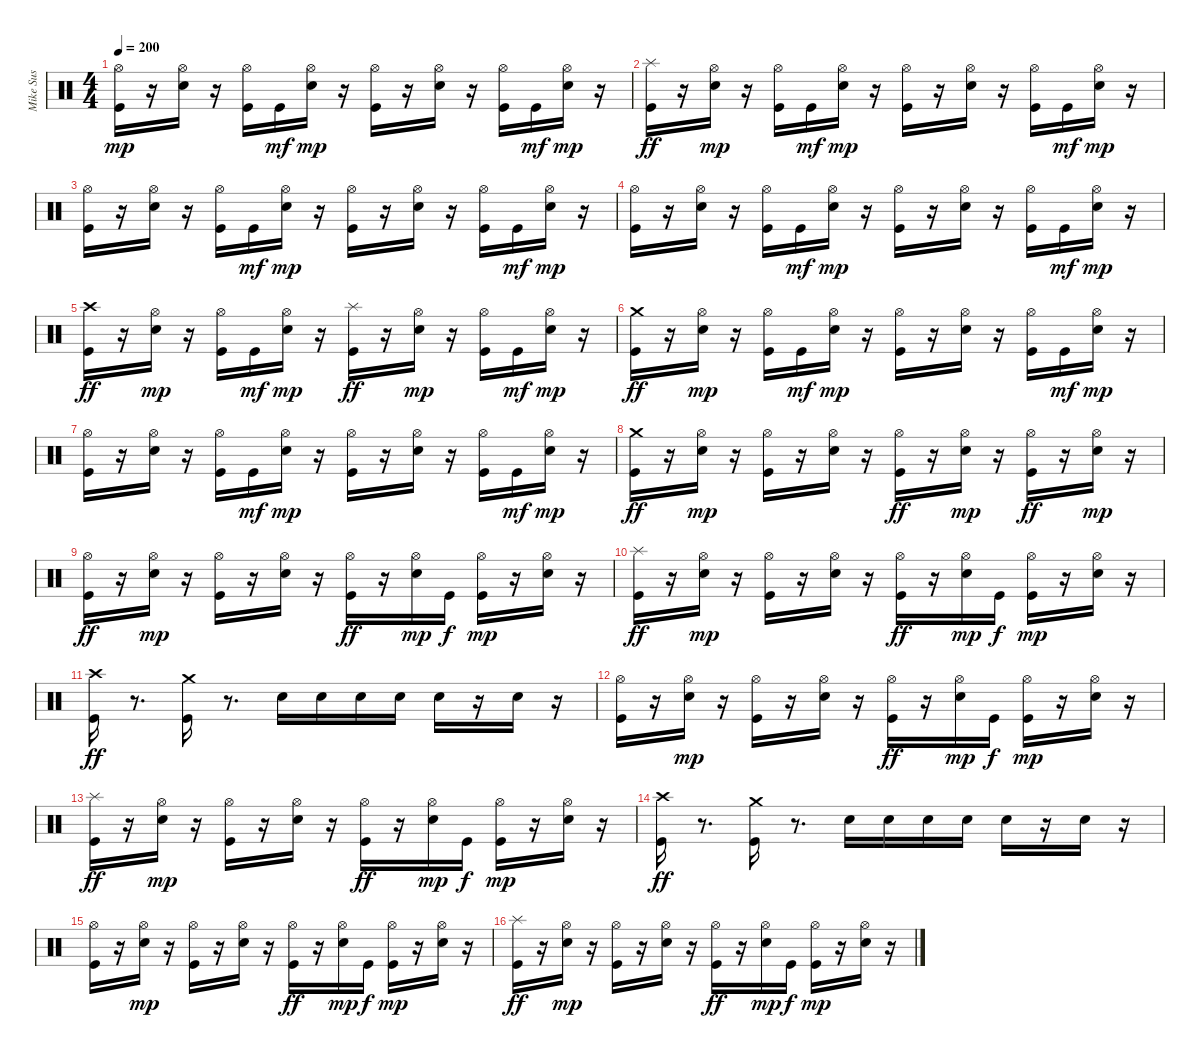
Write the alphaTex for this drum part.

\track ("Mike Sus" "Mike Sus") {instrument percussion}
\staff {score}
\articulation defaults
\ts (4 4)
\tempo 200
\clef neutral
\ks c
("Kick (hit)" "Hi-Hat (open)").16{dy mp} r.16 ("Snare (hit) 2" "Hi-Hat (open)").16 r.16 ("Kick (hit)" "Hi-Hat (open)").16 "Kick (hit)".16{dy mf} ("Snare (hit) 2" "Hi-Hat (open)").16{dy mp} r.16 ("Kick (hit)" "Hi-Hat (open)").16 r.16 ("Snare (hit) 2" "Hi-Hat (open)").16 r.16 ("Kick (hit)" "Hi-Hat (open)").16 "Kick (hit)".16{dy mf} ("Snare (hit) 2" "Hi-Hat (open)").16{dy mp} r.16 |
("Kick (hit)" "Splash (hit)").16{dy ff} r.16 ("Snare (hit) 2" "Hi-Hat (open)").16{dy mp} r.16 ("Kick (hit)" "Hi-Hat (open)").16 "Kick (hit)".16{dy mf} ("Snare (hit) 2" "Hi-Hat (open)").16{dy mp} r.16 ("Kick (hit)" "Hi-Hat (open)").16 r.16 ("Snare (hit) 2" "Hi-Hat (open)").16 r.16 ("Kick (hit)" "Hi-Hat (open)").16 "Kick (hit)".16{dy mf} ("Snare (hit) 2" "Hi-Hat (open)").16{dy mp} r.16 |
("Kick (hit)" "Hi-Hat (open)").16 r.16 ("Snare (hit) 2" "Hi-Hat (open)").16 r.16 ("Kick (hit)" "Hi-Hat (open)").16 "Kick (hit)".16{dy mf} ("Snare (hit) 2" "Hi-Hat (open)").16{dy mp} r.16 ("Kick (hit)" "Hi-Hat (open)").16 r.16 ("Snare (hit) 2" "Hi-Hat (open)").16 r.16 ("Kick (hit)" "Hi-Hat (open)").16 "Kick (hit)".16{dy mf} ("Snare (hit) 2" "Hi-Hat (open)").16{dy mp} r.16 |
("Kick (hit)" "Hi-Hat (open)").16 r.16 ("Snare (hit) 2" "Hi-Hat (open)").16 r.16 ("Kick (hit)" "Hi-Hat (open)").16 "Kick (hit)".16{dy mf} ("Snare (hit) 2" "Hi-Hat (open)").16{dy mp} r.16 ("Kick (hit)" "Hi-Hat (open)").16 r.16 ("Snare (hit) 2" "Hi-Hat (open)").16 r.16 ("Kick (hit)" "Hi-Hat (open)").16 "Kick (hit)".16{dy mf} ("Snare (hit) 2" "Hi-Hat (open)").16{dy mp} r.16 |
("Kick (hit)" "Crash high (hit)").16{dy ff} r.16 ("Snare (hit) 2" "Hi-Hat (open)").16{dy mp} r.16 ("Kick (hit)" "Hi-Hat (open)").16 "Kick (hit)".16{dy mf} ("Snare (hit) 2" "Hi-Hat (open)").16{dy mp} r.16 ("Kick (hit)" "Splash (hit)").16{dy ff} r.16 ("Snare (hit) 2" "Hi-Hat (open)").16{dy mp} r.16 ("Kick (hit)" "Hi-Hat (open)").16 "Kick (hit)".16{dy mf} ("Snare (hit) 2" "Hi-Hat (open)").16{dy mp} r.16 |
("Kick (hit)" "Crash medium (hit)").16{dy ff} r.16 ("Snare (hit) 2" "Hi-Hat (open)").16{dy mp} r.16 ("Kick (hit)" "Hi-Hat (open)").16 "Kick (hit)".16{dy mf} ("Snare (hit) 2" "Hi-Hat (open)").16{dy mp} r.16 ("Kick (hit)" "Hi-Hat (open)").16 r.16 ("Snare (hit) 2" "Hi-Hat (open)").16 r.16 ("Kick (hit)" "Hi-Hat (open)").16 "Kick (hit)".16{dy mf} ("Snare (hit) 2" "Hi-Hat (open)").16{dy mp} r.16 |
("Kick (hit)" "Hi-Hat (open)").16 r.16 ("Snare (hit) 2" "Hi-Hat (open)").16 r.16 ("Kick (hit)" "Hi-Hat (open)").16 "Kick (hit)".16{dy mf} ("Snare (hit) 2" "Hi-Hat (open)").16{dy mp} r.16 ("Kick (hit)" "Hi-Hat (open)").16 r.16 ("Snare (hit) 2" "Hi-Hat (open)").16 r.16 ("Kick (hit)" "Hi-Hat (open)").16 "Kick (hit)".16{dy mf} ("Snare (hit) 2" "Hi-Hat (open)").16{dy mp} r.16 |
("Kick (hit)" "Crash medium (hit)").16{dy ff} r.16 ("Snare (hit) 2" "Hi-Hat (open)").16{dy mp} r.16 ("Kick (hit)" "Hi-Hat (open)").16 r.16 ("Snare (hit) 2" "Hi-Hat (open)").16 r.16 ("Hi-Hat (open)" "Kick (hit)").16{dy ff} r.16 ("Snare (hit) 2" "Hi-Hat (open)").16{dy mp} r.16 ("Hi-Hat (open)" "Kick (hit)").16{dy ff} r.16 ("Snare (hit) 2" "Hi-Hat (open)").16{dy mp} r.16 |
("Hi-Hat (open)" "Kick (hit)").16{dy ff} r.16 ("Snare (hit) 2" "Hi-Hat (open)").16{dy mp} r.16 ("Kick (hit)" "Hi-Hat (open)").16 r.16 ("Snare (hit) 2" "Hi-Hat (open)").16 r.16 ("Hi-Hat (open)" "Kick (hit)").16{dy ff} r.16 ("Snare (hit) 2" "Hi-Hat (open)").16{dy mp} "Kick (hit)".16{dy f} ("Hi-Hat (open)" "Kick (hit)").16{dy mp} r.16 ("Snare (hit) 2" "Hi-Hat (open)").16 r.16 |
("Kick (hit)" "Splash (hit)").16{dy ff} r.16 ("Snare (hit) 2" "Hi-Hat (open)").16{dy mp} r.16 ("Kick (hit)" "Hi-Hat (open)").16 r.16 ("Snare (hit) 2" "Hi-Hat (open)").16 r.16 ("Hi-Hat (open)" "Kick (hit)").16{dy ff} r.16 ("Snare (hit) 2" "Hi-Hat (open)").16{dy mp} "Kick (hit)".16{dy f} ("Hi-Hat (open)" "Kick (hit)").16{dy mp} r.16 ("Snare (hit) 2" "Hi-Hat (open)").16 r.16 |
("Kick (hit)" "Crash high (hit)").16{dy ff} r.8{d} ("Kick (hit)" "Crash medium (hit)").16 r.8{d} "Snare (hit) 2".16 "Snare (hit) 2".16 "Snare (hit) 2".16 "Snare (hit) 2".16 "Snare (hit) 2".16 r.16 "Snare (hit) 2".16 r.16 |
("Hi-Hat (open)" "Kick (hit)").16 r.16 ("Snare (hit) 2" "Hi-Hat (open)").16{dy mp} r.16 ("Kick (hit)" "Hi-Hat (open)").16 r.16 ("Snare (hit) 2" "Hi-Hat (open)").16 r.16 ("Hi-Hat (open)" "Kick (hit)").16{dy ff} r.16 ("Snare (hit) 2" "Hi-Hat (open)").16{dy mp} "Kick (hit)".16{dy f} ("Hi-Hat (open)" "Kick (hit)").16{dy mp} r.16 ("Snare (hit) 2" "Hi-Hat (open)").16 r.16 |
("Kick (hit)" "Splash (hit)").16{dy ff} r.16 ("Snare (hit) 2" "Hi-Hat (open)").16{dy mp} r.16 ("Kick (hit)" "Hi-Hat (open)").16 r.16 ("Snare (hit) 2" "Hi-Hat (open)").16 r.16 ("Hi-Hat (open)" "Kick (hit)").16{dy ff} r.16 ("Snare (hit) 2" "Hi-Hat (open)").16{dy mp} "Kick (hit)".16{dy f} ("Hi-Hat (open)" "Kick (hit)").16{dy mp} r.16 ("Snare (hit) 2" "Hi-Hat (open)").16 r.16 |
("Kick (hit)" "Crash high (hit)").16{dy ff} r.8{d} ("Kick (hit)" "Crash medium (hit)").16 r.8{d} "Snare (hit) 2".16 "Snare (hit) 2".16 "Snare (hit) 2".16 "Snare (hit) 2".16 "Snare (hit) 2".16 r.16 "Snare (hit) 2".16 r.16 |
("Hi-Hat (open)" "Kick (hit)").16 r.16 ("Snare (hit) 2" "Hi-Hat (open)").16{dy mp} r.16 ("Kick (hit)" "Hi-Hat (open)").16 r.16 ("Snare (hit) 2" "Hi-Hat (open)").16 r.16 ("Hi-Hat (open)" "Kick (hit)").16{dy ff} r.16 ("Snare (hit) 2" "Hi-Hat (open)").16{dy mp} "Kick (hit)".16{dy f} ("Hi-Hat (open)" "Kick (hit)").16{dy mp} r.16 ("Snare (hit) 2" "Hi-Hat (open)").16 r.16 |
("Kick (hit)" "Splash (hit)").16{dy ff} r.16 ("Snare (hit) 2" "Hi-Hat (open)").16{dy mp} r.16 ("Kick (hit)" "Hi-Hat (open)").16 r.16 ("Snare (hit) 2" "Hi-Hat (open)").16 r.16 ("Hi-Hat (open)" "Kick (hit)").16{dy ff} r.16 ("Snare (hit) 2" "Hi-Hat (open)").16{dy mp} "Kick (hit)".16{dy f} ("Hi-Hat (open)" "Kick (hit)").16{dy mp} r.16 ("Snare (hit) 2" "Hi-Hat (open)").16 r.16
